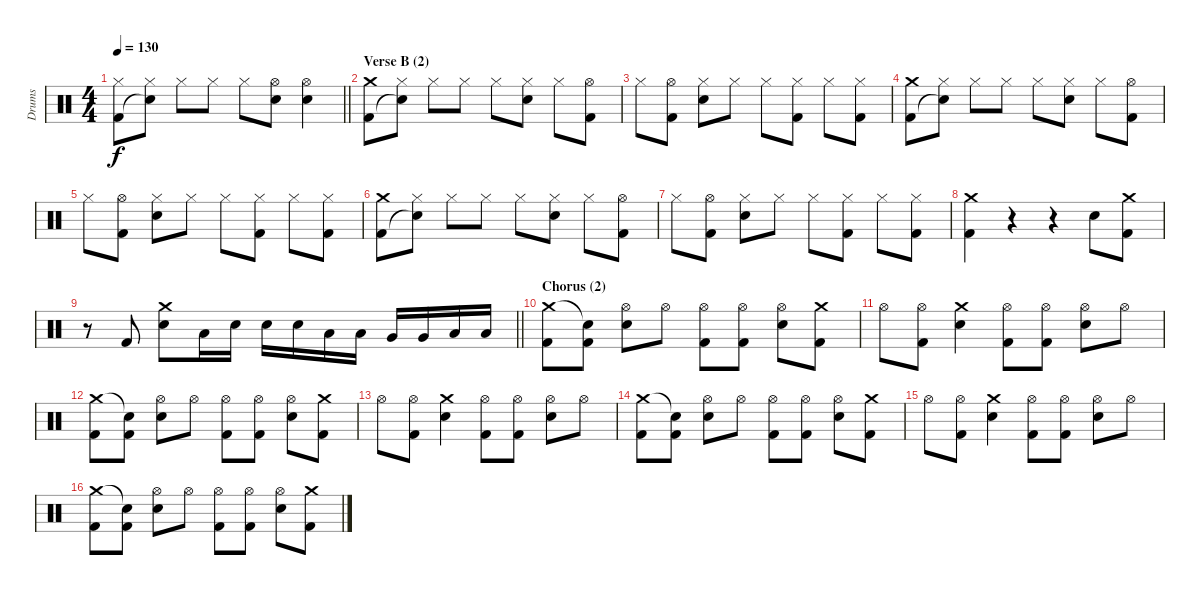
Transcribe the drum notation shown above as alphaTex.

\track ("Drums" "Drums") {instrument percussion}
\staff {score}
\articulation defaults
\ts (4 4)
\tempo 130
\clef neutral
\barLineRight lightlight
\ks c
("Hi-Hat (closed)" "Kick (hit) 2").8{dy f} ("Hi-Hat (closed)" "Snare (hit)"{t}).8 "Hi-Hat (closed)".8 "Hi-Hat (closed)".8 "Hi-Hat (closed)".8 ("Hi-Hat (open)" "Electric Snare (hit)").8 ("Hi-Hat (open)" "Electric Snare (hit)").4 |
\section ("" "Verse B (2)")
("Crash medium (hit)" "Kick (hit) 2").8 ("Hi-Hat (closed)" "Snare (hit)"{t}).8 "Hi-Hat (closed)".8 "Hi-Hat (closed)".8 "Hi-Hat (closed)".8 ("Hi-Hat (closed)" "Electric Snare (hit)").8 "Hi-Hat (closed)".8 ("Hi-Hat (open)" "Kick (hit) 2").8 |
"Hi-Hat (closed)".8 ("Hi-Hat (open)" "Kick (hit) 2").8 ("Hi-Hat (closed)" "Electric Snare (hit)").8 "Hi-Hat (closed)".8 "Hi-Hat (closed)".8 ("Hi-Hat (closed)" "Kick (hit) 2").8 "Hi-Hat (closed)".8 ("Hi-Hat (closed)" "Kick (hit) 2").8 |
("Crash medium (hit)" "Kick (hit) 2").8 ("Hi-Hat (closed)" "Snare (hit)"{t}).8 "Hi-Hat (closed)".8 "Hi-Hat (closed)".8 "Hi-Hat (closed)".8 ("Hi-Hat (closed)" "Electric Snare (hit)").8 "Hi-Hat (closed)".8 ("Hi-Hat (open)" "Kick (hit) 2").8 |
"Hi-Hat (closed)".8 ("Hi-Hat (open)" "Kick (hit) 2").8 ("Hi-Hat (closed)" "Electric Snare (hit)").8 "Hi-Hat (closed)".8 "Hi-Hat (closed)".8 ("Hi-Hat (closed)" "Kick (hit) 2").8 "Hi-Hat (closed)".8 ("Hi-Hat (closed)" "Kick (hit) 2").8 |
("Crash medium (hit)" "Kick (hit) 2").8 ("Hi-Hat (closed)" "Snare (hit)"{t}).8 "Hi-Hat (closed)".8 "Hi-Hat (closed)".8 "Hi-Hat (closed)".8 ("Hi-Hat (closed)" "Electric Snare (hit)").8 "Hi-Hat (closed)".8 ("Hi-Hat (open)" "Kick (hit) 2").8 |
"Hi-Hat (closed)".8 ("Hi-Hat (open)" "Kick (hit) 2").8 ("Hi-Hat (closed)" "Electric Snare (hit)").8 "Hi-Hat (closed)".8 "Hi-Hat (closed)".8 ("Hi-Hat (closed)" "Kick (hit) 2").8 "Hi-Hat (closed)".8 ("Hi-Hat (closed)" "Kick (hit) 2").8 |
("Crash medium (hit)" "Kick (hit) 2").4 r.4 r.4 "Electric Snare (hit)".8 ("Crash medium (hit)" "Kick (hit) 2").8 |
\barLineRight lightlight
r.8 "Kick (hit) 2".8 ("Crash medium (hit)" "Electric Snare (hit)").8 "Low Tom (hit)".16 "Electric Snare (hit)".16 "Electric Snare (hit)".16 "Electric Snare (hit)".16 "Low Tom (hit)".16 "Low Tom (hit)".16 "Very Low Tom (hit)".16 "Very Low Tom (hit)".16 "Low Floor Tom (hit)".16 "Low Floor Tom (hit)".16 |
\section ("" "Chorus (2)")
("Crash medium (hit)" "Kick (hit) 2").8 ("Snare (hit)"{t} "Kick (hit) 2").8 ("Hi-Hat (open)" "Electric Snare (hit)").8 "Hi-Hat (open)".8 ("Hi-Hat (open)" "Kick (hit) 2").8 ("Hi-Hat (open)" "Kick (hit) 2").8 ("Hi-Hat (open)" "Electric Snare (hit)").8 ("Crash medium (hit)" "Kick (hit) 2").8 |
"Hi-Hat (open)".8 ("Hi-Hat (open)" "Kick (hit) 2").8 ("Crash medium (hit)" "Electric Snare (hit)").4 ("Hi-Hat (open)" "Kick (hit) 2").8 ("Hi-Hat (open)" "Kick (hit) 2").8 ("Hi-Hat (open)" "Electric Snare (hit)").8 "Hi-Hat (open)".8 |
("Crash medium (hit)" "Kick (hit) 2").8 ("Snare (hit)"{t} "Kick (hit) 2").8 ("Hi-Hat (open)" "Electric Snare (hit)").8 "Hi-Hat (open)".8 ("Hi-Hat (open)" "Kick (hit) 2").8 ("Hi-Hat (open)" "Kick (hit) 2").8 ("Hi-Hat (open)" "Electric Snare (hit)").8 ("Crash medium (hit)" "Kick (hit) 2").8 |
"Hi-Hat (open)".8 ("Hi-Hat (open)" "Kick (hit) 2").8 ("Crash medium (hit)" "Electric Snare (hit)").4 ("Hi-Hat (open)" "Kick (hit) 2").8 ("Hi-Hat (open)" "Kick (hit) 2").8 ("Hi-Hat (open)" "Electric Snare (hit)").8 "Hi-Hat (open)".8 |
("Crash medium (hit)" "Kick (hit) 2").8 ("Snare (hit)"{t} "Kick (hit) 2").8 ("Hi-Hat (open)" "Electric Snare (hit)").8 "Hi-Hat (open)".8 ("Hi-Hat (open)" "Kick (hit) 2").8 ("Hi-Hat (open)" "Kick (hit) 2").8 ("Hi-Hat (open)" "Electric Snare (hit)").8 ("Crash medium (hit)" "Kick (hit) 2").8 |
"Hi-Hat (open)".8 ("Hi-Hat (open)" "Kick (hit) 2").8 ("Crash medium (hit)" "Electric Snare (hit)").4 ("Hi-Hat (open)" "Kick (hit) 2").8 ("Hi-Hat (open)" "Kick (hit) 2").8 ("Hi-Hat (open)" "Electric Snare (hit)").8 "Hi-Hat (open)".8 |
("Crash medium (hit)" "Kick (hit) 2").8 ("Snare (hit)"{t} "Kick (hit) 2").8 ("Hi-Hat (open)" "Electric Snare (hit)").8 "Hi-Hat (open)".8 ("Hi-Hat (open)" "Kick (hit) 2").8 ("Hi-Hat (open)" "Kick (hit) 2").8 ("Hi-Hat (open)" "Electric Snare (hit)").8 ("Crash medium (hit)" "Kick (hit) 2").8
